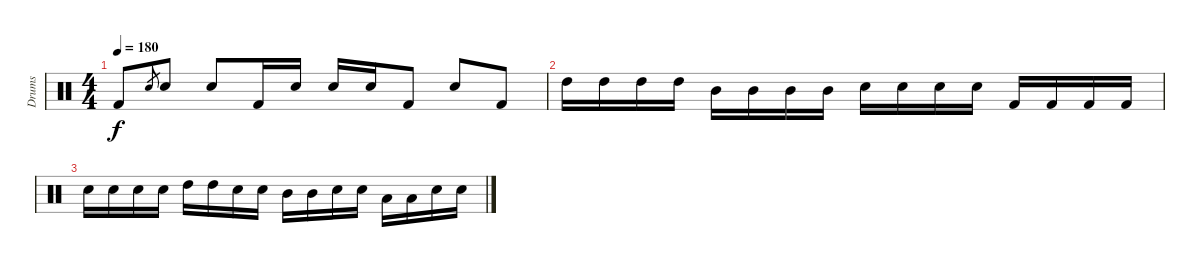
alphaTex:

\track ("Drums" "Drums") {instrument percussion}
\staff {score}
\articulation defaults
\ts (4 4)
\tempo 180
\clef neutral
\ks c "Kick (hit) 2".8{dy f} "Electric Snare (hit)".8{gr} "Electric Snare (hit)".8 "Electric Snare (hit)".8 "Kick (hit) 2".16 "Electric Snare (hit)".16 "Electric Snare (hit)".16 "Electric Snare (hit)".16 "Kick (hit) 2".8 "Electric Snare (hit)".8 "Kick (hit) 2".8
|
"High Tom (hit)".16 "High Tom (hit)".16 "High Tom (hit)".16 "High Tom (hit)".16 "Mid Tom (hit)".16 "Mid Tom (hit)".16 "Mid Tom (hit)".16 "Mid Tom (hit)".16 "Electric Snare (hit)".16 "Electric Snare (hit)".16 "Electric Snare (hit)".16 "Electric Snare (hit)".16 "Kick (hit) 2".16 "Kick (hit) 2".16 "Kick (hit) 2".16 "Kick (hit) 2".16 |
"Electric Snare (hit)".16 "Electric Snare (hit)".16 "Electric Snare (hit)".16 "Electric Snare (hit)".16 "High Tom (hit)".16 "High Tom (hit)".16 "Electric Snare (hit)".16 "Electric Snare (hit)".16 "Mid Tom (hit)".16 "Mid Tom (hit)".16 "Electric Snare (hit)".16 "Electric Snare (hit)".16 "Low Tom (hit)".16 "Low Tom (hit)".16 "Electric Snare (hit)".16 "Electric Snare (hit)".16
